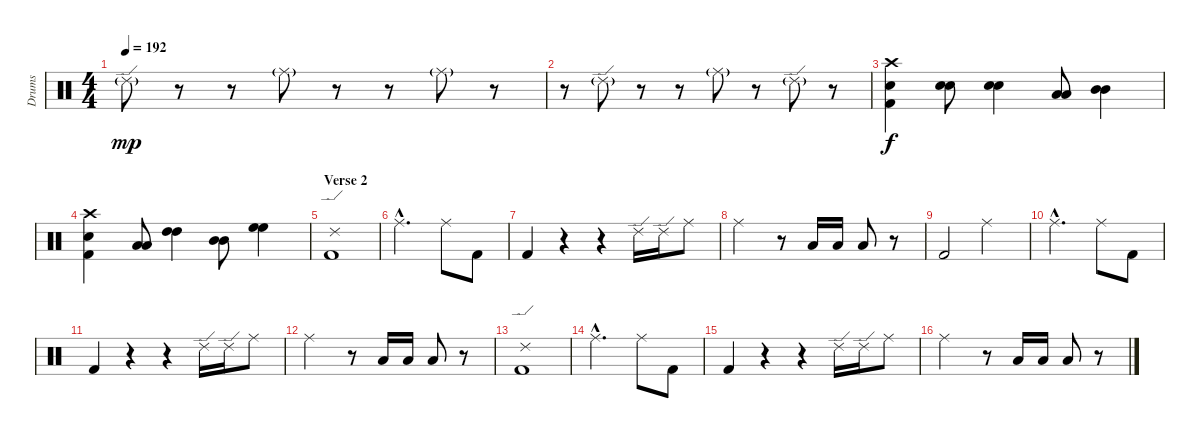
\track ("Drums" "Drums") {instrument percussion}
\staff {score}
\articulation defaults
\ts (4 4)
\tempo 192
\clef neutral
\ks c "Ride (edge) 2"{g}.8{dy mp}
r.8 r.8 "Ride (middle)"{g}.8 r.8 r.8 "Ride (middle)"{g}.8 r.8 |
r.8 "Ride (edge) 2"{g}.8 r.8 r.8 "Ride (middle)"{g}.8 r.8 "Ride (edge) 2"{g}.8 r.8 |
("Kick (hit) 2" "Snare (hit) 2" "Crash high (hit)").4{dy f} ("Snare (hit) 2" "Snare (hit) 2").8 ("Snare (hit) 2" "Snare (hit) 2").4 ("Low Tom (hit)" "Low Tom (hit)").8 ("Mid Tom (hit)" "Mid Tom (hit)").4 |
("Kick (hit) 2" "Snare (hit) 2" "Crash high (hit)").4 ("Low Tom (hit)" "Low Tom (hit)").8 ("High Tom (hit)" "High Tom (hit)").4 ("Mid Tom (hit)" "Mid Tom (hit)").8 ("High Floor Tom (hit)" "High Floor Tom (hit)").4 |
\section ("" "Verse 2")
("Kick (hit) 2" "Ride (edge) 2").1 |
"Ride (middle)"{hac}.2{d} "Ride (middle)".8 "Kick (hit) 2".8 |
"Kick (hit) 2".4 r.4 r.4 "Ride (edge) 2".16 "Ride (edge) 2".16 "Ride (middle)".8 |
"Ride (middle)".2 r.8 "Low Tom (hit)".16 "Low Tom (hit)".16 "Low Tom (hit)".8 r.8 |
"Kick (hit) 2".2 "Ride (middle)".2 |
"Ride (middle)"{hac}.2{d} "Ride (middle)".8 "Kick (hit) 2".8 |
"Kick (hit) 2".4 r.4 r.4 "Ride (edge) 2".16 "Ride (edge) 2".16 "Ride (middle)".8 |
"Ride (middle)".2 r.8 "Low Tom (hit)".16 "Low Tom (hit)".16 "Low Tom (hit)".8 r.8 |
("Kick (hit) 2" "Ride (edge) 2").1 |
"Ride (middle)"{hac}.2{d} "Ride (middle)".8 "Kick (hit) 2".8 |
"Kick (hit) 2".4 r.4 r.4 "Ride (edge) 2".16 "Ride (edge) 2".16 "Ride (middle)".8 |
"Ride (middle)".2 r.8 "Low Tom (hit)".16 "Low Tom (hit)".16 "Low Tom (hit)".8 r.8
